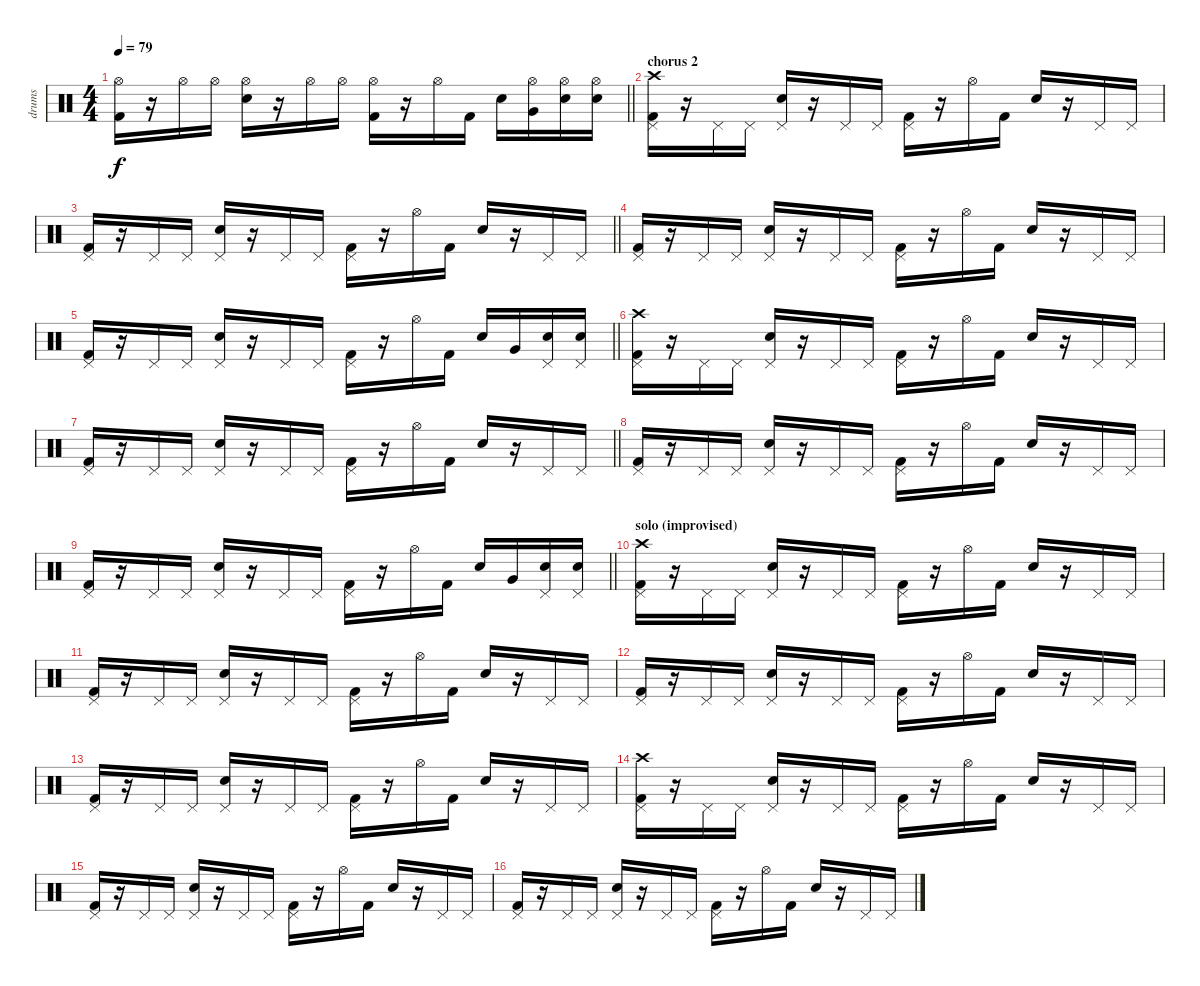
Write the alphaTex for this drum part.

\track ("drums" "drums") {instrument percussion}
\staff {score}
\articulation defaults
\ts (4 4)
\tempo 79
\clef neutral
\barLineRight lightlight
\ks c
("Kick (hit) 2" "Hi-Hat (open)").16{dy f} r.16 "Hi-Hat (open)".16 "Hi-Hat (open)".16 ("Electric Snare (hit)" "Hi-Hat (open)").16 r.16 "Hi-Hat (open)".16 "Hi-Hat (open)".16 ("Kick (hit) 2" "Hi-Hat (open)").16 r.16 "Hi-Hat (open)".16 "Kick (hit) 2".16 "Electric Snare (hit)".16 ("Very Low Tom (hit)" "Hi-Hat (open)").16 ("Electric Snare (hit)" "Hi-Hat (open)").16 ("Electric Snare (hit)" "Hi-Hat (open)").16 |
\section ("" "chorus 2")
("Kick (hit) 2" "Pedal Hi-Hat (hit)" "Crash high (hit)").16 r.16 "Pedal Hi-Hat (hit)".16 "Pedal Hi-Hat (hit)".16 ("Electric Snare (hit)" "Pedal Hi-Hat (hit)").16 r.16 "Pedal Hi-Hat (hit)".16 "Pedal Hi-Hat (hit)".16 ("Kick (hit) 2" "Pedal Hi-Hat (hit)").16 r.16 "Hi-Hat (open)".16 "Kick (hit) 2".16 "Electric Snare (hit)".16 r.16 "Pedal Hi-Hat (hit)".16 "Pedal Hi-Hat (hit)".16 |
\barLineRight lightlight
("Kick (hit) 2" "Pedal Hi-Hat (hit)").16 r.16 "Pedal Hi-Hat (hit)".16 "Pedal Hi-Hat (hit)".16 ("Electric Snare (hit)" "Pedal Hi-Hat (hit)").16 r.16 "Pedal Hi-Hat (hit)".16 "Pedal Hi-Hat (hit)".16 ("Kick (hit) 2" "Pedal Hi-Hat (hit)").16 r.16 "Hi-Hat (open)".16 "Kick (hit) 2".16 "Electric Snare (hit)".16 r.16 "Pedal Hi-Hat (hit)".16 "Pedal Hi-Hat (hit)".16 |
("Kick (hit) 2" "Pedal Hi-Hat (hit)").16 r.16 "Pedal Hi-Hat (hit)".16 "Pedal Hi-Hat (hit)".16 ("Electric Snare (hit)" "Pedal Hi-Hat (hit)").16 r.16 "Pedal Hi-Hat (hit)".16 "Pedal Hi-Hat (hit)".16 ("Kick (hit) 2" "Pedal Hi-Hat (hit)").16 r.16 "Hi-Hat (open)".16 "Kick (hit) 2".16 "Electric Snare (hit)".16 r.16 "Pedal Hi-Hat (hit)".16 "Pedal Hi-Hat (hit)".16 |
\barLineRight lightlight
("Kick (hit) 2" "Pedal Hi-Hat (hit)").16 r.16 "Pedal Hi-Hat (hit)".16 "Pedal Hi-Hat (hit)".16 ("Electric Snare (hit)" "Pedal Hi-Hat (hit)").16 r.16 "Pedal Hi-Hat (hit)".16 "Pedal Hi-Hat (hit)".16 ("Kick (hit) 2" "Pedal Hi-Hat (hit)").16 r.16 "Hi-Hat (open)".16 "Kick (hit) 2".16 "Electric Snare (hit)".16 "Very Low Tom (hit)".16 ("Electric Snare (hit)" "Pedal Hi-Hat (hit)").16 ("Electric Snare (hit)" "Pedal Hi-Hat (hit)").16 |
("Kick (hit) 2" "Pedal Hi-Hat (hit)" "Crash high (hit)").16 r.16 "Pedal Hi-Hat (hit)".16 "Pedal Hi-Hat (hit)".16 ("Electric Snare (hit)" "Pedal Hi-Hat (hit)").16 r.16 "Pedal Hi-Hat (hit)".16 "Pedal Hi-Hat (hit)".16 ("Kick (hit) 2" "Pedal Hi-Hat (hit)").16 r.16 "Hi-Hat (open)".16 "Kick (hit) 2".16 "Electric Snare (hit)".16 r.16 "Pedal Hi-Hat (hit)".16 "Pedal Hi-Hat (hit)".16 |
\barLineRight lightlight
("Kick (hit) 2" "Pedal Hi-Hat (hit)").16 r.16 "Pedal Hi-Hat (hit)".16 "Pedal Hi-Hat (hit)".16 ("Electric Snare (hit)" "Pedal Hi-Hat (hit)").16 r.16 "Pedal Hi-Hat (hit)".16 "Pedal Hi-Hat (hit)".16 ("Kick (hit) 2" "Pedal Hi-Hat (hit)").16 r.16 "Hi-Hat (open)".16 "Kick (hit) 2".16 "Electric Snare (hit)".16 r.16 "Pedal Hi-Hat (hit)".16 "Pedal Hi-Hat (hit)".16 |
("Kick (hit) 2" "Pedal Hi-Hat (hit)").16 r.16 "Pedal Hi-Hat (hit)".16 "Pedal Hi-Hat (hit)".16 ("Electric Snare (hit)" "Pedal Hi-Hat (hit)").16 r.16 "Pedal Hi-Hat (hit)".16 "Pedal Hi-Hat (hit)".16 ("Kick (hit) 2" "Pedal Hi-Hat (hit)").16 r.16 "Hi-Hat (open)".16 "Kick (hit) 2".16 "Electric Snare (hit)".16 r.16 "Pedal Hi-Hat (hit)".16 "Pedal Hi-Hat (hit)".16 |
\barLineRight lightlight
("Kick (hit) 2" "Pedal Hi-Hat (hit)").16 r.16 "Pedal Hi-Hat (hit)".16 "Pedal Hi-Hat (hit)".16 ("Electric Snare (hit)" "Pedal Hi-Hat (hit)").16 r.16 "Pedal Hi-Hat (hit)".16 "Pedal Hi-Hat (hit)".16 ("Kick (hit) 2" "Pedal Hi-Hat (hit)").16 r.16 "Hi-Hat (open)".16 "Kick (hit) 2".16 "Electric Snare (hit)".16 "Very Low Tom (hit)".16 ("Electric Snare (hit)" "Pedal Hi-Hat (hit)").16 ("Electric Snare (hit)" "Pedal Hi-Hat (hit)").16 |
\section ("" "solo (improvised)")
("Kick (hit) 2" "Pedal Hi-Hat (hit)" "Crash high (hit)").16 r.16 "Pedal Hi-Hat (hit)".16 "Pedal Hi-Hat (hit)".16 ("Electric Snare (hit)" "Pedal Hi-Hat (hit)").16 r.16 "Pedal Hi-Hat (hit)".16 "Pedal Hi-Hat (hit)".16 ("Kick (hit) 2" "Pedal Hi-Hat (hit)").16 r.16 "Hi-Hat (open)".16 "Kick (hit) 2".16 "Electric Snare (hit)".16 r.16 "Pedal Hi-Hat (hit)".16 "Pedal Hi-Hat (hit)".16 |
("Kick (hit) 2" "Pedal Hi-Hat (hit)").16 r.16 "Pedal Hi-Hat (hit)".16 "Pedal Hi-Hat (hit)".16 ("Electric Snare (hit)" "Pedal Hi-Hat (hit)").16 r.16 "Pedal Hi-Hat (hit)".16 "Pedal Hi-Hat (hit)".16 ("Kick (hit) 2" "Pedal Hi-Hat (hit)").16 r.16 "Hi-Hat (open)".16 "Kick (hit) 2".16 "Electric Snare (hit)".16 r.16 "Pedal Hi-Hat (hit)".16 "Pedal Hi-Hat (hit)".16 |
("Kick (hit) 2" "Pedal Hi-Hat (hit)").16 r.16 "Pedal Hi-Hat (hit)".16 "Pedal Hi-Hat (hit)".16 ("Electric Snare (hit)" "Pedal Hi-Hat (hit)").16 r.16 "Pedal Hi-Hat (hit)".16 "Pedal Hi-Hat (hit)".16 ("Kick (hit) 2" "Pedal Hi-Hat (hit)").16 r.16 "Hi-Hat (open)".16 "Kick (hit) 2".16 "Electric Snare (hit)".16 r.16 "Pedal Hi-Hat (hit)".16 "Pedal Hi-Hat (hit)".16 |
("Kick (hit) 2" "Pedal Hi-Hat (hit)").16 r.16 "Pedal Hi-Hat (hit)".16 "Pedal Hi-Hat (hit)".16 ("Electric Snare (hit)" "Pedal Hi-Hat (hit)").16 r.16 "Pedal Hi-Hat (hit)".16 "Pedal Hi-Hat (hit)".16 ("Kick (hit) 2" "Pedal Hi-Hat (hit)").16 r.16 "Hi-Hat (open)".16 "Kick (hit) 2".16 "Electric Snare (hit)".16 r.16 "Pedal Hi-Hat (hit)".16 "Pedal Hi-Hat (hit)".16 |
("Kick (hit) 2" "Pedal Hi-Hat (hit)" "Crash high (hit)").16 r.16 "Pedal Hi-Hat (hit)".16 "Pedal Hi-Hat (hit)".16 ("Electric Snare (hit)" "Pedal Hi-Hat (hit)").16 r.16 "Pedal Hi-Hat (hit)".16 "Pedal Hi-Hat (hit)".16 ("Kick (hit) 2" "Pedal Hi-Hat (hit)").16 r.16 "Hi-Hat (open)".16 "Kick (hit) 2".16 "Electric Snare (hit)".16 r.16 "Pedal Hi-Hat (hit)".16 "Pedal Hi-Hat (hit)".16 |
("Kick (hit) 2" "Pedal Hi-Hat (hit)").16 r.16 "Pedal Hi-Hat (hit)".16 "Pedal Hi-Hat (hit)".16 ("Electric Snare (hit)" "Pedal Hi-Hat (hit)").16 r.16 "Pedal Hi-Hat (hit)".16 "Pedal Hi-Hat (hit)".16 ("Kick (hit) 2" "Pedal Hi-Hat (hit)").16 r.16 "Hi-Hat (open)".16 "Kick (hit) 2".16 "Electric Snare (hit)".16 r.16 "Pedal Hi-Hat (hit)".16 "Pedal Hi-Hat (hit)".16 |
("Kick (hit) 2" "Pedal Hi-Hat (hit)").16 r.16 "Pedal Hi-Hat (hit)".16 "Pedal Hi-Hat (hit)".16 ("Electric Snare (hit)" "Pedal Hi-Hat (hit)").16 r.16 "Pedal Hi-Hat (hit)".16 "Pedal Hi-Hat (hit)".16 ("Kick (hit) 2" "Pedal Hi-Hat (hit)").16 r.16 "Hi-Hat (open)".16 "Kick (hit) 2".16 "Electric Snare (hit)".16 r.16 "Pedal Hi-Hat (hit)".16 "Pedal Hi-Hat (hit)".16
